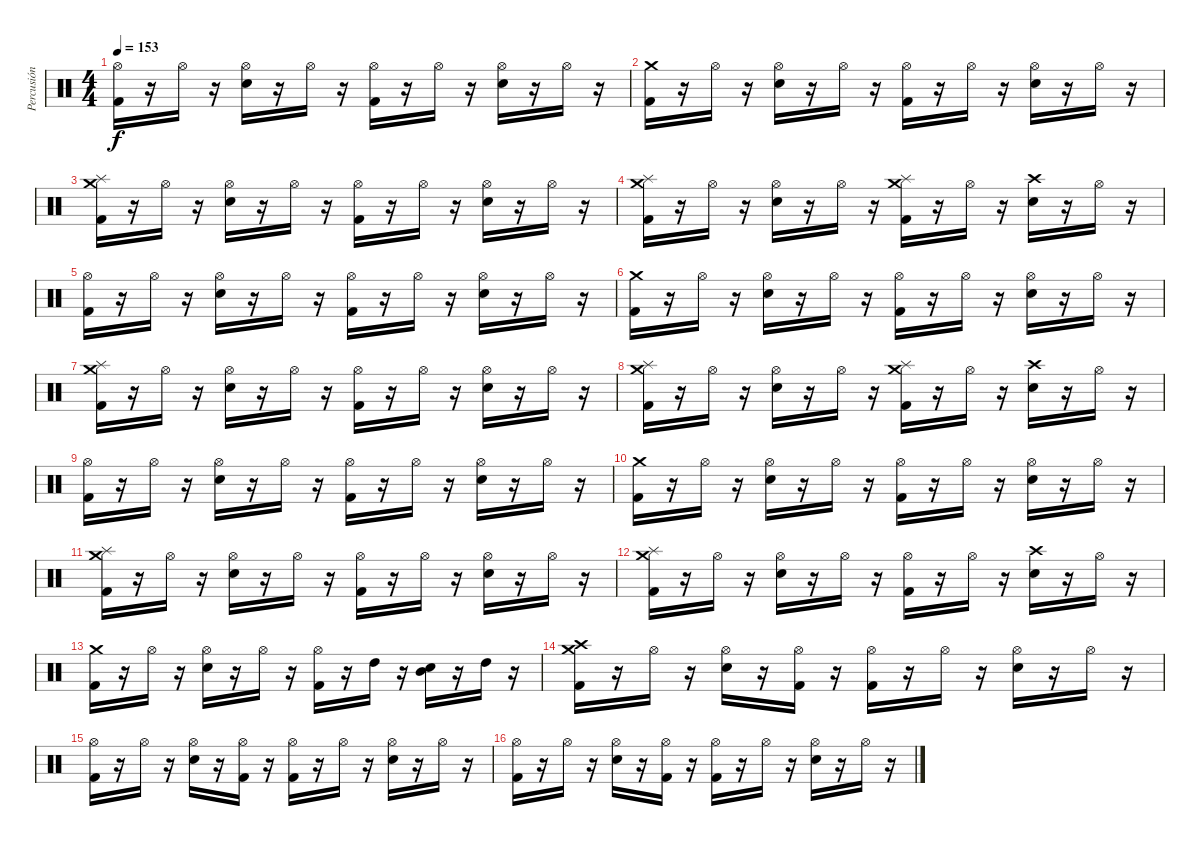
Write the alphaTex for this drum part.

\track ("Percusión" "Percusión") {instrument percussion}
\staff {score}
\articulation defaults
\ts (4 4)
\tempo 153
\clef neutral
\ks c
("Kick (hit) 2" "Hi-Hat (open)").16{dy f} r.16 "Hi-Hat (open)".16 r.16 ("Electric Snare (hit)" "Hi-Hat (open)").16 r.16 "Hi-Hat (open)".16 r.16 ("Kick (hit) 2" "Hi-Hat (open)").16 r.16 "Hi-Hat (open)".16 r.16 ("Electric Snare (hit)" "Hi-Hat (open)").16 r.16 "Hi-Hat (open)".16 r.16 |
("Kick (hit) 2" "Crash medium (hit)").16 r.16 "Hi-Hat (open)".16 r.16 ("Electric Snare (hit)" "Hi-Hat (open)").16 r.16 "Hi-Hat (open)".16 r.16 ("Kick (hit) 2" "Hi-Hat (open)").16 r.16 "Hi-Hat (open)".16 r.16 ("Electric Snare (hit)" "Hi-Hat (open)").16 r.16 "Hi-Hat (open)".16 r.16 |
("Kick (hit) 2" "Crash medium (hit)" "Splash (hit)").16 r.16 "Hi-Hat (open)".16 r.16 ("Electric Snare (hit)" "Hi-Hat (open)").16 r.16 "Hi-Hat (open)".16 r.16 ("Kick (hit) 2" "Hi-Hat (open)").16 r.16 "Hi-Hat (open)".16 r.16 ("Electric Snare (hit)" "Hi-Hat (open)").16 r.16 "Hi-Hat (open)".16 r.16 |
("Kick (hit) 2" "Crash medium (hit)" "Splash (hit)").16 r.16 "Hi-Hat (open)".16 r.16 ("Electric Snare (hit)" "Hi-Hat (open)").16 r.16 "Hi-Hat (open)".16 r.16 ("Kick (hit) 2" "Crash medium (hit)" "Splash (hit)").16 r.16 "Hi-Hat (open)".16 r.16 ("Electric Snare (hit)" "Crash high (hit)").16 r.16 "Hi-Hat (open)".16 r.16 |
("Kick (hit) 2" "Hi-Hat (open)").16 r.16 "Hi-Hat (open)".16 r.16 ("Electric Snare (hit)" "Hi-Hat (open)").16 r.16 "Hi-Hat (open)".16 r.16 ("Kick (hit) 2" "Hi-Hat (open)").16 r.16 "Hi-Hat (open)".16 r.16 ("Electric Snare (hit)" "Hi-Hat (open)").16 r.16 "Hi-Hat (open)".16 r.16 |
("Kick (hit) 2" "Crash medium (hit)").16 r.16 "Hi-Hat (open)".16 r.16 ("Electric Snare (hit)" "Hi-Hat (open)").16 r.16 "Hi-Hat (open)".16 r.16 ("Kick (hit) 2" "Hi-Hat (open)").16 r.16 "Hi-Hat (open)".16 r.16 ("Electric Snare (hit)" "Hi-Hat (open)").16 r.16 "Hi-Hat (open)".16 r.16 |
("Kick (hit) 2" "Crash medium (hit)" "Splash (hit)").16 r.16 "Hi-Hat (open)".16 r.16 ("Electric Snare (hit)" "Hi-Hat (open)").16 r.16 "Hi-Hat (open)".16 r.16 ("Kick (hit) 2" "Hi-Hat (open)").16 r.16 "Hi-Hat (open)".16 r.16 ("Electric Snare (hit)" "Hi-Hat (open)").16 r.16 "Hi-Hat (open)".16 r.16 |
("Kick (hit) 2" "Crash medium (hit)" "Splash (hit)").16 r.16 "Hi-Hat (open)".16 r.16 ("Electric Snare (hit)" "Hi-Hat (open)").16 r.16 "Hi-Hat (open)".16 r.16 ("Kick (hit) 2" "Crash medium (hit)" "Splash (hit)").16 r.16 "Hi-Hat (open)".16 r.16 ("Electric Snare (hit)" "Crash high (hit)").16 r.16 "Hi-Hat (open)".16 r.16 |
("Kick (hit) 2" "Hi-Hat (open)").16 r.16 "Hi-Hat (open)".16 r.16 ("Electric Snare (hit)" "Hi-Hat (open)").16 r.16 "Hi-Hat (open)".16 r.16 ("Kick (hit) 2" "Hi-Hat (open)").16 r.16 "Hi-Hat (open)".16 r.16 ("Electric Snare (hit)" "Hi-Hat (open)").16 r.16 "Hi-Hat (open)".16 r.16 |
("Kick (hit) 2" "Crash medium (hit)").16 r.16 "Hi-Hat (open)".16 r.16 ("Electric Snare (hit)" "Hi-Hat (open)").16 r.16 "Hi-Hat (open)".16 r.16 ("Kick (hit) 2" "Hi-Hat (open)").16 r.16 "Hi-Hat (open)".16 r.16 ("Electric Snare (hit)" "Hi-Hat (open)").16 r.16 "Hi-Hat (open)".16 r.16 |
("Kick (hit) 2" "Crash medium (hit)" "Splash (hit)").16 r.16 "Hi-Hat (open)".16 r.16 ("Electric Snare (hit)" "Hi-Hat (open)").16 r.16 "Hi-Hat (open)".16 r.16 ("Kick (hit) 2" "Hi-Hat (open)").16 r.16 "Hi-Hat (open)".16 r.16 ("Electric Snare (hit)" "Hi-Hat (open)").16 r.16 "Hi-Hat (open)".16 r.16 |
("Kick (hit) 2" "Crash medium (hit)" "Splash (hit)").16 r.16 "Hi-Hat (open)".16 r.16 ("Electric Snare (hit)" "Hi-Hat (open)").16 r.16 "Hi-Hat (open)".16 r.16 ("Kick (hit) 2" "Hi-Hat (open)").16 r.16 "Hi-Hat (open)".16 r.16 ("Electric Snare (hit)" "Crash high (hit)").16 r.16 "Hi-Hat (open)".16 r.16 |
("Kick (hit) 2" "Crash medium (hit)").16 r.16 "Hi-Hat (open)".16 r.16 ("Snare (hit) 2" "Hi-Hat (open)").16 r.16 "Hi-Hat (open)".16 r.16 ("Kick (hit) 2" "Hi-Hat (open)").16 r.16 "High Tom (hit)".16 r.16 ("Mid Tom (hit)" "Snare (hit) 2").16 r.16 "High Tom (hit)".16 r.16 |
("Kick (hit) 2" "Crash medium (hit)" "Crash high (hit)").16 r.16 "Hi-Hat (open)".16 r.16 ("Electric Snare (hit)" "Hi-Hat (open)").16 r.16 ("Kick (hit) 2" "Hi-Hat (open)").16 r.16 ("Kick (hit) 2" "Hi-Hat (open)").16 r.16 "Hi-Hat (open)".16 r.16 ("Electric Snare (hit)" "Hi-Hat (open)").16 r.16 "Hi-Hat (open)".16 r.16 |
("Kick (hit) 2" "Hi-Hat (open)").16 r.16 "Hi-Hat (open)".16 r.16 ("Electric Snare (hit)" "Hi-Hat (open)").16 r.16 ("Kick (hit) 2" "Hi-Hat (open)").16 r.16 ("Kick (hit) 2" "Hi-Hat (open)").16 r.16 "Hi-Hat (open)".16 r.16 ("Electric Snare (hit)" "Hi-Hat (open)").16 r.16 "Hi-Hat (open)".16 r.16 |
("Kick (hit) 2" "Hi-Hat (open)").16 r.16 "Hi-Hat (open)".16 r.16 ("Electric Snare (hit)" "Hi-Hat (open)").16 r.16 ("Kick (hit) 2" "Hi-Hat (open)").16 r.16 ("Kick (hit) 2" "Hi-Hat (open)").16 r.16 "Hi-Hat (open)".16 r.16 ("Electric Snare (hit)" "Hi-Hat (open)").16 r.16 "Hi-Hat (open)".16 r.16
